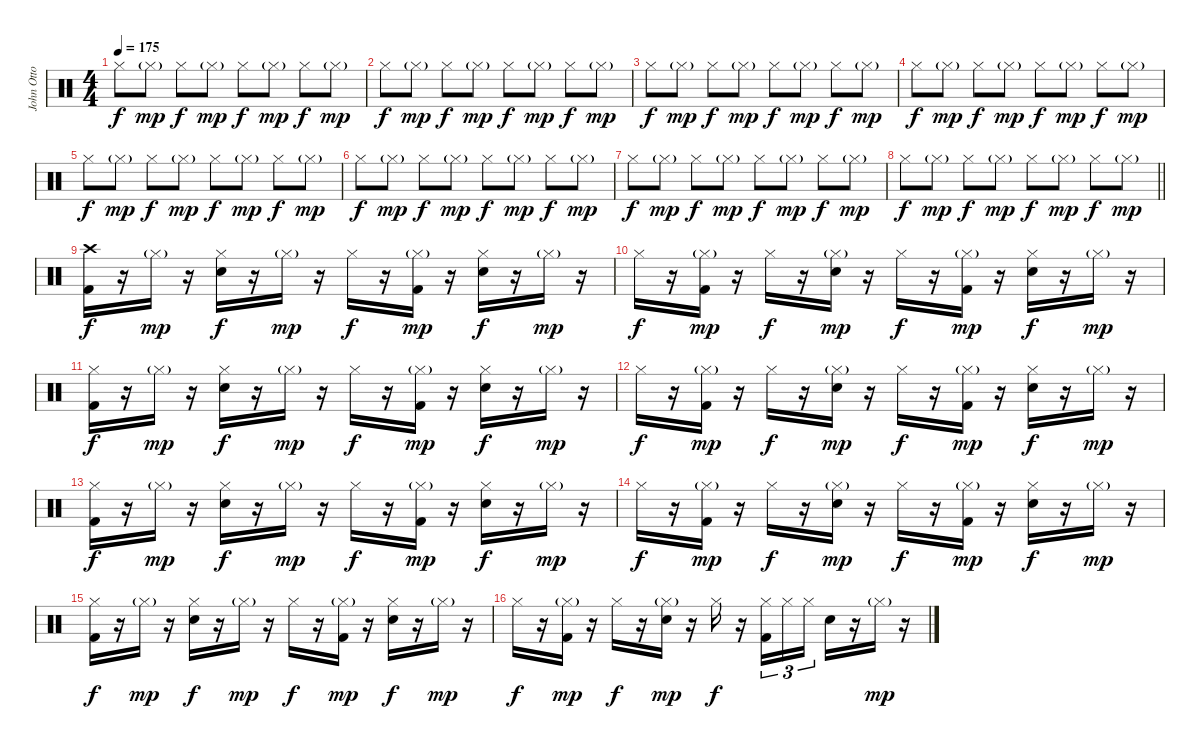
\track ("John Otto" "John Otto") {instrument percussion}
\staff {score}
\articulation defaults
\ts (4 4)
\tempo 175
\clef neutral
\ks c "Hi-Hat (closed)".8{dy f} "Hi-Hat (closed)"{g}.8{dy mp} "Hi-Hat (closed)".8{dy f} "Hi-Hat (closed)"{g}.8{dy mp} "Hi-Hat (closed)".8{dy f} "Hi-Hat (closed)"{g}.8{dy mp} "Hi-Hat (closed)".8{dy f} "Hi-Hat (closed)"{g}.8{dy mp}
|
"Hi-Hat (closed)".8{dy f} "Hi-Hat (closed)"{g}.8{dy mp} "Hi-Hat (closed)".8{dy f} "Hi-Hat (closed)"{g}.8{dy mp} "Hi-Hat (closed)".8{dy f} "Hi-Hat (closed)"{g}.8{dy mp} "Hi-Hat (closed)".8{dy f} "Hi-Hat (closed)"{g}.8{dy mp} |
"Hi-Hat (closed)".8{dy f} "Hi-Hat (closed)"{g}.8{dy mp} "Hi-Hat (closed)".8{dy f} "Hi-Hat (closed)"{g}.8{dy mp} "Hi-Hat (closed)".8{dy f} "Hi-Hat (closed)"{g}.8{dy mp} "Hi-Hat (closed)".8{dy f} "Hi-Hat (closed)"{g}.8{dy mp} |
"Hi-Hat (closed)".8{dy f} "Hi-Hat (closed)"{g}.8{dy mp} "Hi-Hat (closed)".8{dy f} "Hi-Hat (closed)"{g}.8{dy mp} "Hi-Hat (closed)".8{dy f} "Hi-Hat (closed)"{g}.8{dy mp} "Hi-Hat (closed)".8{dy f} "Hi-Hat (closed)"{g}.8{dy mp} |
"Hi-Hat (closed)".8{dy f} "Hi-Hat (closed)"{g}.8{dy mp} "Hi-Hat (closed)".8{dy f} "Hi-Hat (closed)"{g}.8{dy mp} "Hi-Hat (closed)".8{dy f} "Hi-Hat (closed)"{g}.8{dy mp} "Hi-Hat (closed)".8{dy f} "Hi-Hat (closed)"{g}.8{dy mp} |
"Hi-Hat (closed)".8{dy f} "Hi-Hat (closed)"{g}.8{dy mp} "Hi-Hat (closed)".8{dy f} "Hi-Hat (closed)"{g}.8{dy mp} "Hi-Hat (closed)".8{dy f} "Hi-Hat (closed)"{g}.8{dy mp} "Hi-Hat (closed)".8{dy f} "Hi-Hat (closed)"{g}.8{dy mp} |
"Hi-Hat (closed)".8{dy f} "Hi-Hat (closed)"{g}.8{dy mp} "Hi-Hat (closed)".8{dy f} "Hi-Hat (closed)"{g}.8{dy mp} "Hi-Hat (closed)".8{dy f} "Hi-Hat (closed)"{g}.8{dy mp} "Hi-Hat (closed)".8{dy f} "Hi-Hat (closed)"{g}.8{dy mp} |
\barLineRight lightlight "Hi-Hat (closed)".8{dy f} "Hi-Hat (closed)"{g}.8{dy mp} "Hi-Hat (closed)".8{dy f} "Hi-Hat (closed)"{g}.8{dy mp} "Hi-Hat (closed)".8{dy f} "Hi-Hat (closed)"{g}.8{dy mp} "Hi-Hat (closed)".8{dy f} "Hi-Hat (closed)"{g}.8{dy mp}
|
("Crash high (hit)" "Kick (hit) 2").16{dy f} r.16 "Hi-Hat (closed)"{g}.16{dy mp} r.16 ("Hi-Hat (closed)" "Snare (hit) 2").16{dy f} r.16 "Hi-Hat (closed)"{g}.16{dy mp} r.16 "Hi-Hat (closed)".16{dy f} r.16 ("Hi-Hat (closed)"{g} "Kick (hit) 2").16{dy mp} r.16 ("Hi-Hat (closed)" "Snare (hit) 2").16{dy f} r.16 "Hi-Hat (closed)"{g}.16{dy mp} r.16 |
"Hi-Hat (closed)".16{dy f} r.16 ("Hi-Hat (closed)"{g} "Kick (hit) 2").16{dy mp} r.16 "Hi-Hat (closed)".16{dy f} r.16 ("Hi-Hat (closed)"{g} "Snare (hit) 2").16{dy mp} r.16 "Hi-Hat (closed)".16{dy f} r.16 ("Hi-Hat (closed)"{g} "Kick (hit) 2").16{dy mp} r.16 ("Hi-Hat (closed)" "Snare (hit) 2").16{dy f} r.16 "Hi-Hat (closed)"{g}.16{dy mp} r.16 |
("Hi-Hat (closed)" "Kick (hit) 2").16{dy f} r.16 "Hi-Hat (closed)"{g}.16{dy mp} r.16 ("Hi-Hat (closed)" "Snare (hit) 2").16{dy f} r.16 "Hi-Hat (closed)"{g}.16{dy mp} r.16 "Hi-Hat (closed)".16{dy f} r.16 ("Hi-Hat (closed)"{g} "Kick (hit) 2").16{dy mp} r.16 ("Hi-Hat (closed)" "Snare (hit) 2").16{dy f} r.16 "Hi-Hat (closed)"{g}.16{dy mp} r.16 |
"Hi-Hat (closed)".16{dy f} r.16 ("Hi-Hat (closed)"{g} "Kick (hit) 2").16{dy mp} r.16 "Hi-Hat (closed)".16{dy f} r.16 ("Hi-Hat (closed)"{g} "Snare (hit) 2").16{dy mp} r.16 "Hi-Hat (closed)".16{dy f} r.16 ("Hi-Hat (closed)"{g} "Kick (hit) 2").16{dy mp} r.16 ("Hi-Hat (closed)" "Snare (hit) 2").16{dy f} r.16 "Hi-Hat (closed)"{g}.16{dy mp} r.16 |
("Hi-Hat (closed)" "Kick (hit) 2").16{dy f} r.16 "Hi-Hat (closed)"{g}.16{dy mp} r.16 ("Hi-Hat (closed)" "Snare (hit) 2").16{dy f} r.16 "Hi-Hat (closed)"{g}.16{dy mp} r.16 "Hi-Hat (closed)".16{dy f} r.16 ("Hi-Hat (closed)"{g} "Kick (hit) 2").16{dy mp} r.16 ("Hi-Hat (closed)" "Snare (hit) 2").16{dy f} r.16 "Hi-Hat (closed)"{g}.16{dy mp} r.16 |
"Hi-Hat (closed)".16{dy f} r.16 ("Hi-Hat (closed)"{g} "Kick (hit) 2").16{dy mp} r.16 "Hi-Hat (closed)".16{dy f} r.16 ("Hi-Hat (closed)"{g} "Snare (hit) 2").16{dy mp} r.16 "Hi-Hat (closed)".16{dy f} r.16 ("Hi-Hat (closed)"{g} "Kick (hit) 2").16{dy mp} r.16 ("Hi-Hat (closed)" "Snare (hit) 2").16{dy f} r.16 "Hi-Hat (closed)"{g}.16{dy mp} r.16 |
("Hi-Hat (closed)" "Kick (hit) 2").16{dy f} r.16 "Hi-Hat (closed)"{g}.16{dy mp} r.16 ("Hi-Hat (closed)" "Snare (hit) 2").16{dy f} r.16 "Hi-Hat (closed)"{g}.16{dy mp} r.16 "Hi-Hat (closed)".16{dy f} r.16 ("Hi-Hat (closed)"{g} "Kick (hit) 2").16{dy mp} r.16 ("Hi-Hat (closed)" "Snare (hit) 2").16{dy f} r.16 "Hi-Hat (closed)"{g}.16{dy mp} r.16 |
"Hi-Hat (closed)".16{dy f} r.16 ("Hi-Hat (closed)"{g} "Kick (hit) 2").16{dy mp} r.16 "Hi-Hat (closed)".16{dy f} r.16 ("Hi-Hat (closed)"{g} "Snare (hit) 2").16{dy mp} r.16 "Hi-Hat (closed)".16{dy f} r.16 ("Hi-Hat (closed)" "Kick (hit) 2").16{tu (3 2)} "Hi-Hat (closed)".16{tu (3 2)} "Hi-Hat (closed)".16{tu (3 2)} "Snare (hit) 2".16 r.16 "Hi-Hat (closed)"{g}.16{dy mp} r.16
